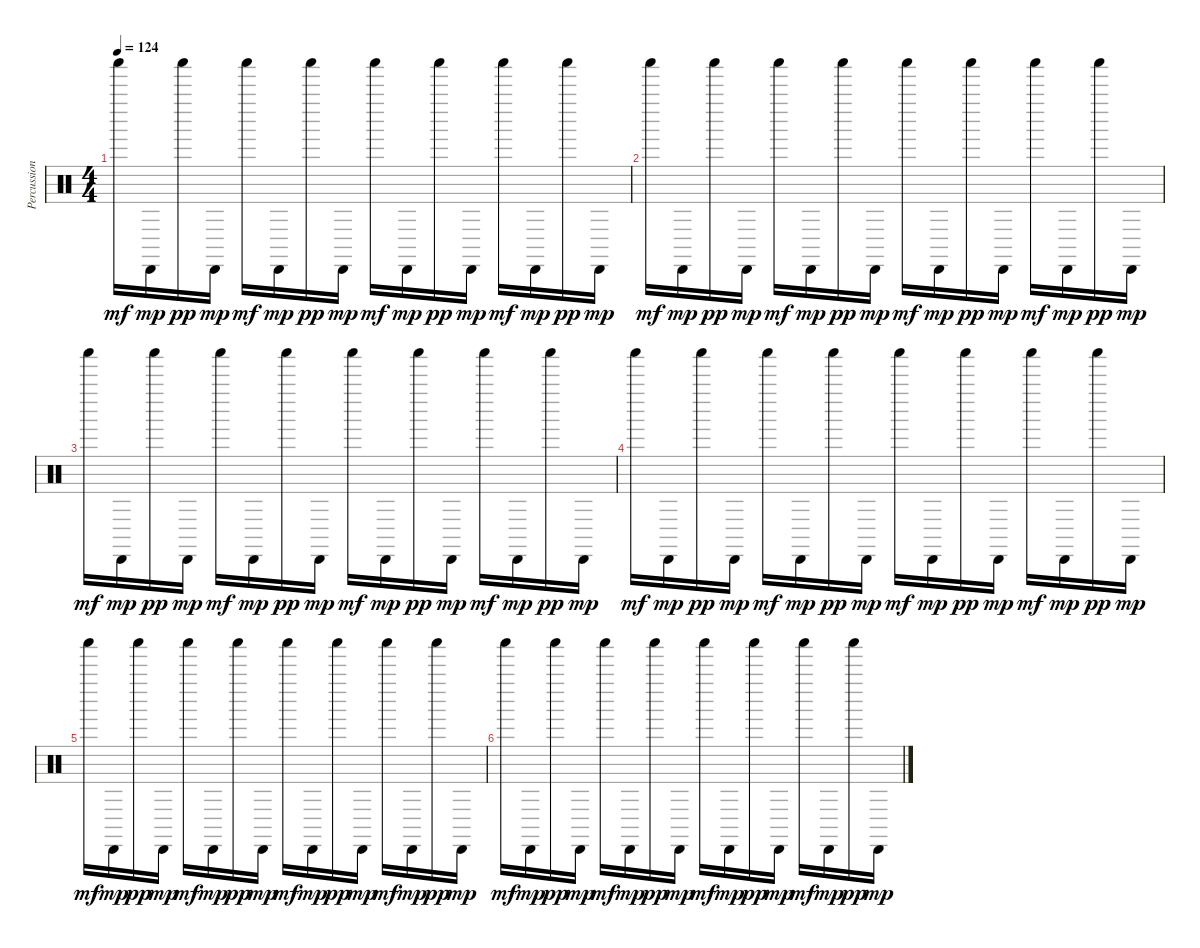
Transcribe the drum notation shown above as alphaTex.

\track ("Percussion" "Percussion") {instrument percussion}
\staff {score}
\articulation defaults
\ts (4 4)
\tempo 124
\clef neutral
\ks c "Shaker (hit)".16{dy mf} "Cabasa (hit)".16{dy mp} "Shaker (hit)".16{dy pp} "Cabasa (hit)".16{dy mp} "Shaker (hit)".16{dy mf} "Cabasa (hit)".16{dy mp} "Shaker (hit)".16{dy pp} "Cabasa (hit)".16{dy mp} "Shaker (hit)".16{dy mf} "Cabasa (hit)".16{dy mp} "Shaker (hit)".16{dy pp} "Cabasa (hit)".16{dy mp} "Shaker (hit)".16{dy mf} "Cabasa (hit)".16{dy mp} "Shaker (hit)".16{dy pp} "Cabasa (hit)".16{dy mp}
|
"Shaker (hit)".16{dy mf} "Cabasa (hit)".16{dy mp} "Shaker (hit)".16{dy pp} "Cabasa (hit)".16{dy mp} "Shaker (hit)".16{dy mf} "Cabasa (hit)".16{dy mp} "Shaker (hit)".16{dy pp} "Cabasa (hit)".16{dy mp} "Shaker (hit)".16{dy mf} "Cabasa (hit)".16{dy mp} "Shaker (hit)".16{dy pp} "Cabasa (hit)".16{dy mp} "Shaker (hit)".16{dy mf} "Cabasa (hit)".16{dy mp} "Shaker (hit)".16{dy pp} "Cabasa (hit)".16{dy mp} |
"Shaker (hit)".16{dy mf} "Cabasa (hit)".16{dy mp} "Shaker (hit)".16{dy pp} "Cabasa (hit)".16{dy mp} "Shaker (hit)".16{dy mf} "Cabasa (hit)".16{dy mp} "Shaker (hit)".16{dy pp} "Cabasa (hit)".16{dy mp} "Shaker (hit)".16{dy mf} "Cabasa (hit)".16{dy mp} "Shaker (hit)".16{dy pp} "Cabasa (hit)".16{dy mp} "Shaker (hit)".16{dy mf} "Cabasa (hit)".16{dy mp} "Shaker (hit)".16{dy pp} "Cabasa (hit)".16{dy mp} |
"Shaker (hit)".16{dy mf} "Cabasa (hit)".16{dy mp} "Shaker (hit)".16{dy pp} "Cabasa (hit)".16{dy mp} "Shaker (hit)".16{dy mf} "Cabasa (hit)".16{dy mp} "Shaker (hit)".16{dy pp} "Cabasa (hit)".16{dy mp} "Shaker (hit)".16{dy mf} "Cabasa (hit)".16{dy mp} "Shaker (hit)".16{dy pp} "Cabasa (hit)".16{dy mp} "Shaker (hit)".16{dy mf} "Cabasa (hit)".16{dy mp} "Shaker (hit)".16{dy pp} "Cabasa (hit)".16{dy mp} |
"Shaker (hit)".16{dy mf} "Cabasa (hit)".16{dy mp} "Shaker (hit)".16{dy pp} "Cabasa (hit)".16{dy mp} "Shaker (hit)".16{dy mf} "Cabasa (hit)".16{dy mp} "Shaker (hit)".16{dy pp} "Cabasa (hit)".16{dy mp} "Shaker (hit)".16{dy mf} "Cabasa (hit)".16{dy mp} "Shaker (hit)".16{dy pp} "Cabasa (hit)".16{dy mp} "Shaker (hit)".16{dy mf} "Cabasa (hit)".16{dy mp} "Shaker (hit)".16{dy pp} "Cabasa (hit)".16{dy mp} |
"Shaker (hit)".16{dy mf} "Cabasa (hit)".16{dy mp} "Shaker (hit)".16{dy pp} "Cabasa (hit)".16{dy mp} "Shaker (hit)".16{dy mf} "Cabasa (hit)".16{dy mp} "Shaker (hit)".16{dy pp} "Cabasa (hit)".16{dy mp} "Shaker (hit)".16{dy mf} "Cabasa (hit)".16{dy mp} "Shaker (hit)".16{dy pp} "Cabasa (hit)".16{dy mp} "Shaker (hit)".16{dy mf} "Cabasa (hit)".16{dy mp} "Shaker (hit)".16{dy pp} "Cabasa (hit)".16{dy mp}
